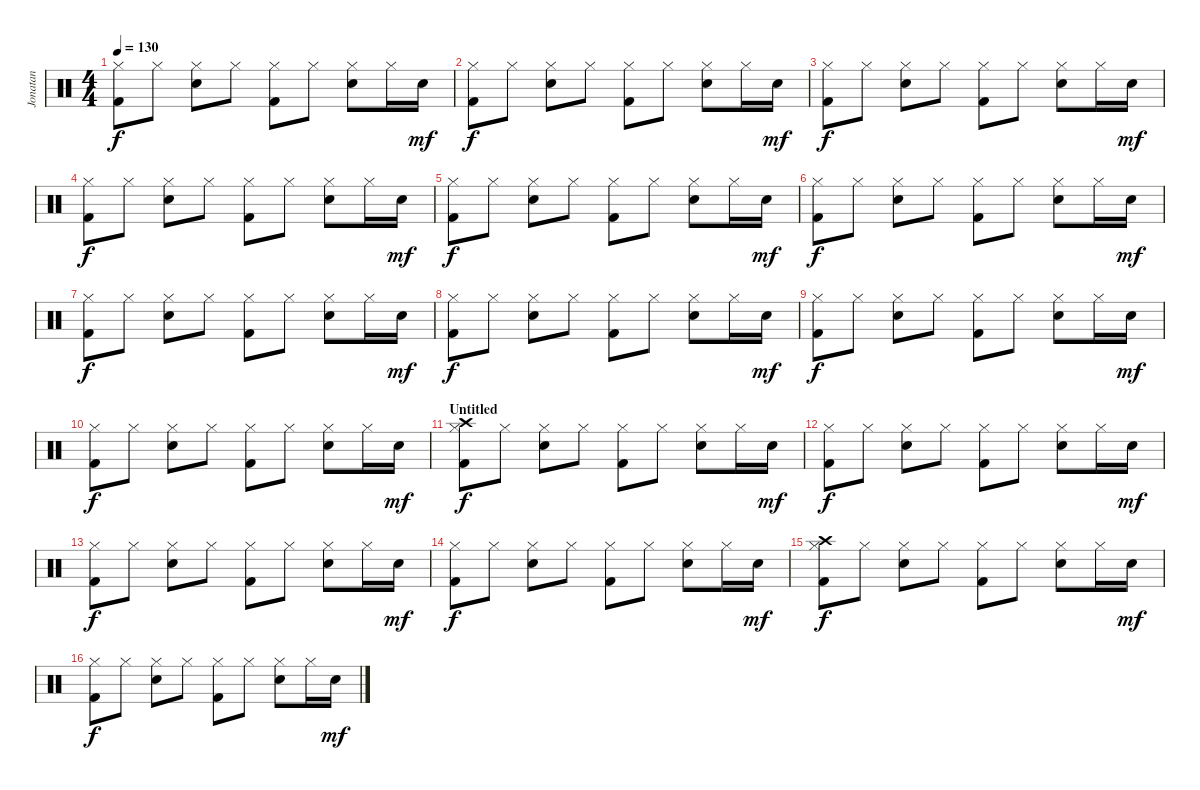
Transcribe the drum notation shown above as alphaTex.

\track ("Jonatan" "Jonatan") {instrument percussion}
\staff {score}
\articulation defaults
\ts (4 4)
\tempo 130
\clef neutral
\ks c
("Hi-Hat (closed)" "Kick (hit) 2").8{dy f} "Hi-Hat (closed)".8 ("Hi-Hat (closed)" "Electric Snare (hit)").8 "Hi-Hat (closed)".8 ("Hi-Hat (closed)" "Kick (hit) 2").8 "Hi-Hat (closed)".8 ("Hi-Hat (closed)" "Electric Snare (hit)").8 "Hi-Hat (closed)".16 "Electric Snare (hit)".16{dy mf} |
("Hi-Hat (closed)" "Kick (hit) 2").8{dy f} "Hi-Hat (closed)".8 ("Hi-Hat (closed)" "Electric Snare (hit)").8 "Hi-Hat (closed)".8 ("Hi-Hat (closed)" "Kick (hit) 2").8 "Hi-Hat (closed)".8 ("Hi-Hat (closed)" "Electric Snare (hit)").8 "Hi-Hat (closed)".16 "Electric Snare (hit)".16{dy mf} |
("Hi-Hat (closed)" "Kick (hit) 2").8{dy f} "Hi-Hat (closed)".8 ("Hi-Hat (closed)" "Electric Snare (hit)").8 "Hi-Hat (closed)".8 ("Hi-Hat (closed)" "Kick (hit) 2").8 "Hi-Hat (closed)".8 ("Hi-Hat (closed)" "Electric Snare (hit)").8 "Hi-Hat (closed)".16 "Electric Snare (hit)".16{dy mf} |
("Hi-Hat (closed)" "Kick (hit) 2").8{dy f} "Hi-Hat (closed)".8 ("Hi-Hat (closed)" "Electric Snare (hit)").8 "Hi-Hat (closed)".8 ("Hi-Hat (closed)" "Kick (hit) 2").8 "Hi-Hat (closed)".8 ("Hi-Hat (closed)" "Electric Snare (hit)").8 "Hi-Hat (closed)".16 "Electric Snare (hit)".16{dy mf} |
("Hi-Hat (closed)" "Kick (hit) 2").8{dy f} "Hi-Hat (closed)".8 ("Hi-Hat (closed)" "Electric Snare (hit)").8 "Hi-Hat (closed)".8 ("Hi-Hat (closed)" "Kick (hit) 2").8 "Hi-Hat (closed)".8 ("Hi-Hat (closed)" "Electric Snare (hit)").8 "Hi-Hat (closed)".16 "Electric Snare (hit)".16{dy mf} |
("Hi-Hat (closed)" "Kick (hit) 2").8{dy f} "Hi-Hat (closed)".8 ("Hi-Hat (closed)" "Electric Snare (hit)").8 "Hi-Hat (closed)".8 ("Hi-Hat (closed)" "Kick (hit) 2").8 "Hi-Hat (closed)".8 ("Hi-Hat (closed)" "Electric Snare (hit)").8 "Hi-Hat (closed)".16 "Electric Snare (hit)".16{dy mf} |
("Hi-Hat (closed)" "Kick (hit) 2").8{dy f} "Hi-Hat (closed)".8 ("Hi-Hat (closed)" "Electric Snare (hit)").8 "Hi-Hat (closed)".8 ("Hi-Hat (closed)" "Kick (hit) 2").8 "Hi-Hat (closed)".8 ("Hi-Hat (closed)" "Electric Snare (hit)").8 "Hi-Hat (closed)".16 "Electric Snare (hit)".16{dy mf} |
("Hi-Hat (closed)" "Kick (hit) 2").8{dy f} "Hi-Hat (closed)".8 ("Hi-Hat (closed)" "Electric Snare (hit)").8 "Hi-Hat (closed)".8 ("Hi-Hat (closed)" "Kick (hit) 2").8 "Hi-Hat (closed)".8 ("Hi-Hat (closed)" "Electric Snare (hit)").8 "Hi-Hat (closed)".16 "Electric Snare (hit)".16{dy mf} |
("Hi-Hat (closed)" "Kick (hit) 2").8{dy f} "Hi-Hat (closed)".8 ("Hi-Hat (closed)" "Electric Snare (hit)").8 "Hi-Hat (closed)".8 ("Hi-Hat (closed)" "Kick (hit) 2").8 "Hi-Hat (closed)".8 ("Hi-Hat (closed)" "Electric Snare (hit)").8 "Hi-Hat (closed)".16 "Electric Snare (hit)".16{dy mf} |
("Hi-Hat (closed)" "Kick (hit) 2").8{dy f} "Hi-Hat (closed)".8 ("Hi-Hat (closed)" "Electric Snare (hit)").8 "Hi-Hat (closed)".8 ("Hi-Hat (closed)" "Kick (hit) 2").8 "Hi-Hat (closed)".8 ("Hi-Hat (closed)" "Electric Snare (hit)").8 "Hi-Hat (closed)".16 "Electric Snare (hit)".16{dy mf} |
\section ("" "Untitled")
("Crash high (hit)" "Hi-Hat (closed)" "Kick (hit) 2").8{dy f} "Hi-Hat (closed)".8 ("Hi-Hat (closed)" "Electric Snare (hit)").8 "Hi-Hat (closed)".8 ("Hi-Hat (closed)" "Kick (hit) 2").8 "Hi-Hat (closed)".8 ("Hi-Hat (closed)" "Electric Snare (hit)").8 "Hi-Hat (closed)".16 "Electric Snare (hit)".16{dy mf} |
("Hi-Hat (closed)" "Kick (hit) 2").8{dy f} "Hi-Hat (closed)".8 ("Hi-Hat (closed)" "Electric Snare (hit)").8 "Hi-Hat (closed)".8 ("Hi-Hat (closed)" "Kick (hit) 2").8 "Hi-Hat (closed)".8 ("Hi-Hat (closed)" "Electric Snare (hit)").8 "Hi-Hat (closed)".16 "Electric Snare (hit)".16{dy mf} |
("Hi-Hat (closed)" "Kick (hit) 2").8{dy f} "Hi-Hat (closed)".8 ("Hi-Hat (closed)" "Electric Snare (hit)").8 "Hi-Hat (closed)".8 ("Hi-Hat (closed)" "Kick (hit) 2").8 "Hi-Hat (closed)".8 ("Hi-Hat (closed)" "Electric Snare (hit)").8 "Hi-Hat (closed)".16 "Electric Snare (hit)".16{dy mf} |
("Hi-Hat (closed)" "Kick (hit) 2").8{dy f} "Hi-Hat (closed)".8 ("Hi-Hat (closed)" "Electric Snare (hit)").8 "Hi-Hat (closed)".8 ("Hi-Hat (closed)" "Kick (hit) 2").8 "Hi-Hat (closed)".8 ("Hi-Hat (closed)" "Electric Snare (hit)").8 "Hi-Hat (closed)".16 "Electric Snare (hit)".16{dy mf} |
("Crash high (hit)" "Hi-Hat (closed)" "Kick (hit) 2").8{dy f} "Hi-Hat (closed)".8 ("Hi-Hat (closed)" "Electric Snare (hit)").8 "Hi-Hat (closed)".8 ("Hi-Hat (closed)" "Kick (hit) 2").8 "Hi-Hat (closed)".8 ("Hi-Hat (closed)" "Electric Snare (hit)").8 "Hi-Hat (closed)".16 "Electric Snare (hit)".16{dy mf} |
("Hi-Hat (closed)" "Kick (hit) 2").8{dy f} "Hi-Hat (closed)".8 ("Hi-Hat (closed)" "Electric Snare (hit)").8 "Hi-Hat (closed)".8 ("Hi-Hat (closed)" "Kick (hit) 2").8 "Hi-Hat (closed)".8 ("Hi-Hat (closed)" "Electric Snare (hit)").8 "Hi-Hat (closed)".16 "Electric Snare (hit)".16{dy mf}
